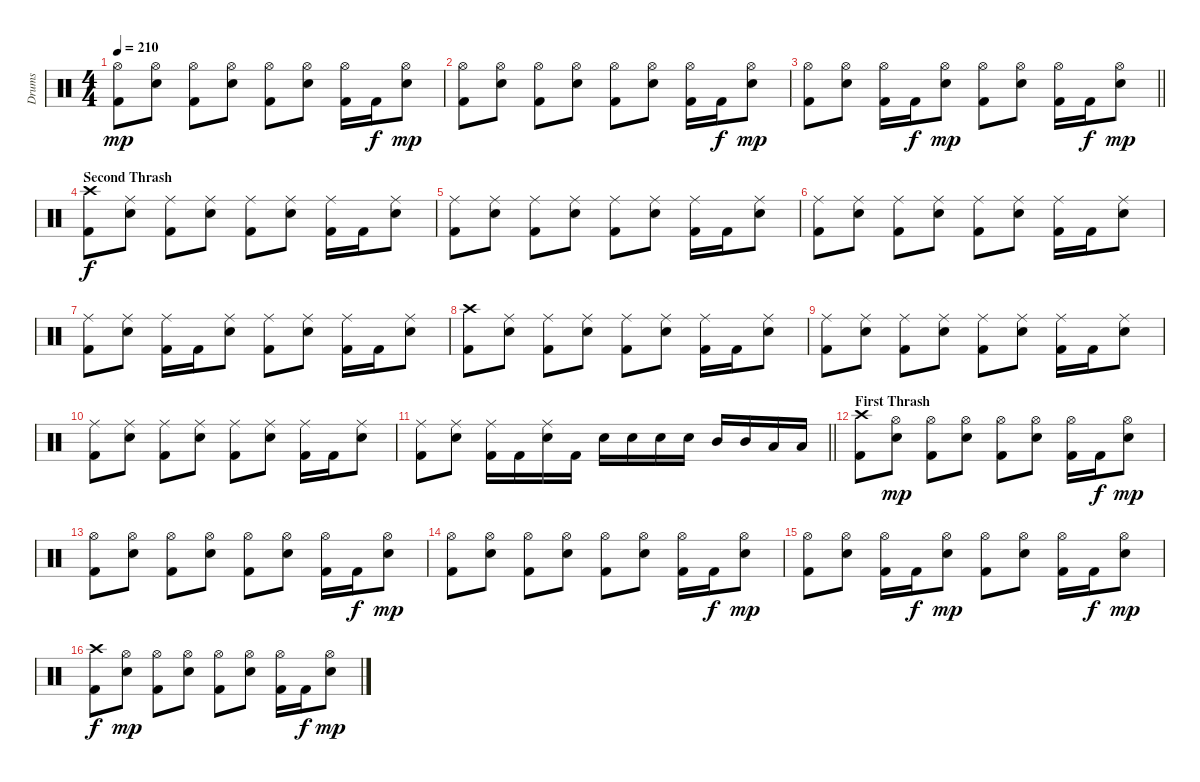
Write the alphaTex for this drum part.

\track ("Drums" "Drums") {instrument percussion}
\staff {score}
\articulation defaults
\ts (4 4)
\tempo 210
\clef neutral
\ks c
("Hi-Hat (open)" "Kick (hit) 2").8{dy mp} ("Hi-Hat (open)" "Snare (hit) 2").8 ("Hi-Hat (open)" "Kick (hit) 2").8 ("Hi-Hat (open)" "Snare (hit) 2").8 ("Hi-Hat (open)" "Kick (hit) 2").8 ("Hi-Hat (open)" "Snare (hit) 2").8 ("Hi-Hat (open)" "Kick (hit) 2").16 "Kick (hit) 2".16{dy f} ("Hi-Hat (open)" "Snare (hit) 2").8{dy mp} |
("Hi-Hat (open)" "Kick (hit) 2").8 ("Hi-Hat (open)" "Snare (hit) 2").8 ("Hi-Hat (open)" "Kick (hit) 2").8 ("Hi-Hat (open)" "Snare (hit) 2").8 ("Hi-Hat (open)" "Kick (hit) 2").8 ("Hi-Hat (open)" "Snare (hit) 2").8 ("Hi-Hat (open)" "Kick (hit) 2").16 "Kick (hit) 2".16{dy f} ("Hi-Hat (open)" "Snare (hit) 2").8{dy mp} |
\barLineRight lightlight
("Hi-Hat (open)" "Kick (hit) 2").8 ("Hi-Hat (open)" "Snare (hit) 2").8 ("Hi-Hat (open)" "Kick (hit) 2").16 "Kick (hit) 2".16{dy f} ("Hi-Hat (open)" "Snare (hit) 2").8{dy mp} ("Hi-Hat (open)" "Kick (hit) 2").8 ("Hi-Hat (open)" "Snare (hit) 2").8 ("Hi-Hat (open)" "Kick (hit) 2").16 "Kick (hit) 2".16{dy f} ("Hi-Hat (open)" "Snare (hit) 2").8{dy mp} |
\section ("" "Second Thrash")
("Crash high (hit)" "Kick (hit) 2").8{dy f} ("Ride (middle)" "Snare (hit) 2").8 ("Ride (middle)" "Kick (hit) 2").8 ("Ride (middle)" "Snare (hit) 2").8 ("Ride (middle)" "Kick (hit) 2").8 ("Ride (middle)" "Snare (hit) 2").8 ("Ride (middle)" "Kick (hit) 2").16 "Kick (hit) 2".16 ("Ride (middle)" "Snare (hit) 2").8 |
("Ride (middle)" "Kick (hit) 2").8 ("Ride (middle)" "Snare (hit) 2").8 ("Ride (middle)" "Kick (hit) 2").8 ("Ride (middle)" "Snare (hit) 2").8 ("Ride (middle)" "Kick (hit) 2").8 ("Ride (middle)" "Snare (hit) 2").8 ("Ride (middle)" "Kick (hit) 2").16 "Kick (hit) 2".16 ("Ride (middle)" "Snare (hit) 2").8 |
("Ride (middle)" "Kick (hit) 2").8 ("Ride (middle)" "Snare (hit) 2").8 ("Ride (middle)" "Kick (hit) 2").8 ("Ride (middle)" "Snare (hit) 2").8 ("Ride (middle)" "Kick (hit) 2").8 ("Ride (middle)" "Snare (hit) 2").8 ("Ride (middle)" "Kick (hit) 2").16 "Kick (hit) 2".16 ("Ride (middle)" "Snare (hit) 2").8 |
("Ride (middle)" "Kick (hit) 2").8 ("Ride (middle)" "Snare (hit) 2").8 ("Ride (middle)" "Kick (hit) 2").16 "Kick (hit) 2".16 ("Ride (middle)" "Snare (hit) 2").8 ("Ride (middle)" "Kick (hit) 2").8 ("Ride (middle)" "Snare (hit) 2").8 ("Ride (middle)" "Kick (hit) 2").16 "Kick (hit) 2".16 ("Ride (middle)" "Snare (hit) 2").8 |
("Crash high (hit)" "Kick (hit) 2").8 ("Ride (middle)" "Snare (hit) 2").8 ("Ride (middle)" "Kick (hit) 2").8 ("Ride (middle)" "Snare (hit) 2").8 ("Ride (middle)" "Kick (hit) 2").8 ("Ride (middle)" "Snare (hit) 2").8 ("Ride (middle)" "Kick (hit) 2").16 "Kick (hit) 2".16 ("Ride (middle)" "Snare (hit) 2").8 |
("Ride (middle)" "Kick (hit) 2").8 ("Ride (middle)" "Snare (hit) 2").8 ("Ride (middle)" "Kick (hit) 2").8 ("Ride (middle)" "Snare (hit) 2").8 ("Ride (middle)" "Kick (hit) 2").8 ("Ride (middle)" "Snare (hit) 2").8 ("Ride (middle)" "Kick (hit) 2").16 "Kick (hit) 2".16 ("Ride (middle)" "Snare (hit) 2").8 |
("Ride (middle)" "Kick (hit) 2").8 ("Ride (middle)" "Snare (hit) 2").8 ("Ride (middle)" "Kick (hit) 2").8 ("Ride (middle)" "Snare (hit) 2").8 ("Ride (middle)" "Kick (hit) 2").8 ("Ride (middle)" "Snare (hit) 2").8 ("Ride (middle)" "Kick (hit) 2").16 "Kick (hit) 2".16 ("Ride (middle)" "Snare (hit) 2").8 |
\barLineRight lightlight
("Ride (middle)" "Kick (hit) 2").8 ("Ride (middle)" "Snare (hit) 2").8 ("Ride (middle)" "Kick (hit) 2").16 "Kick (hit) 2".16 ("Ride (middle)" "Snare (hit) 2").16 "Kick (hit) 2".16 "Snare (hit) 2".16 "Snare (hit) 2".16 "Snare (hit) 2".16 "Snare (hit) 2".16 "Mid Tom (hit)".16 "Mid Tom (hit)".16 "Low Tom (hit)".16 "Low Tom (hit)".16 |
\section ("" "First Thrash")
("Crash high (hit)" "Kick (hit) 2").8 ("Hi-Hat (open)" "Snare (hit) 2").8{dy mp} ("Hi-Hat (open)" "Kick (hit) 2").8 ("Hi-Hat (open)" "Snare (hit) 2").8 ("Hi-Hat (open)" "Kick (hit) 2").8 ("Hi-Hat (open)" "Snare (hit) 2").8 ("Hi-Hat (open)" "Kick (hit) 2").16 "Kick (hit) 2".16{dy f} ("Hi-Hat (open)" "Snare (hit) 2").8{dy mp} |
("Hi-Hat (open)" "Kick (hit) 2").8 ("Hi-Hat (open)" "Snare (hit) 2").8 ("Hi-Hat (open)" "Kick (hit) 2").8 ("Hi-Hat (open)" "Snare (hit) 2").8 ("Hi-Hat (open)" "Kick (hit) 2").8 ("Hi-Hat (open)" "Snare (hit) 2").8 ("Hi-Hat (open)" "Kick (hit) 2").16 "Kick (hit) 2".16{dy f} ("Hi-Hat (open)" "Snare (hit) 2").8{dy mp} |
("Hi-Hat (open)" "Kick (hit) 2").8 ("Hi-Hat (open)" "Snare (hit) 2").8 ("Hi-Hat (open)" "Kick (hit) 2").8 ("Hi-Hat (open)" "Snare (hit) 2").8 ("Hi-Hat (open)" "Kick (hit) 2").8 ("Hi-Hat (open)" "Snare (hit) 2").8 ("Hi-Hat (open)" "Kick (hit) 2").16 "Kick (hit) 2".16{dy f} ("Hi-Hat (open)" "Snare (hit) 2").8{dy mp} |
("Hi-Hat (open)" "Kick (hit) 2").8 ("Hi-Hat (open)" "Snare (hit) 2").8 ("Hi-Hat (open)" "Kick (hit) 2").16 "Kick (hit) 2".16{dy f} ("Hi-Hat (open)" "Snare (hit) 2").8{dy mp} ("Hi-Hat (open)" "Kick (hit) 2").8 ("Hi-Hat (open)" "Snare (hit) 2").8 ("Hi-Hat (open)" "Kick (hit) 2").16 "Kick (hit) 2".16{dy f} ("Hi-Hat (open)" "Snare (hit) 2").8{dy mp} |
("Crash high (hit)" "Kick (hit) 2").8{dy f} ("Hi-Hat (open)" "Snare (hit) 2").8{dy mp} ("Hi-Hat (open)" "Kick (hit) 2").8 ("Hi-Hat (open)" "Snare (hit) 2").8 ("Hi-Hat (open)" "Kick (hit) 2").8 ("Hi-Hat (open)" "Snare (hit) 2").8 ("Hi-Hat (open)" "Kick (hit) 2").16 "Kick (hit) 2".16{dy f} ("Hi-Hat (open)" "Snare (hit) 2").8{dy mp}
